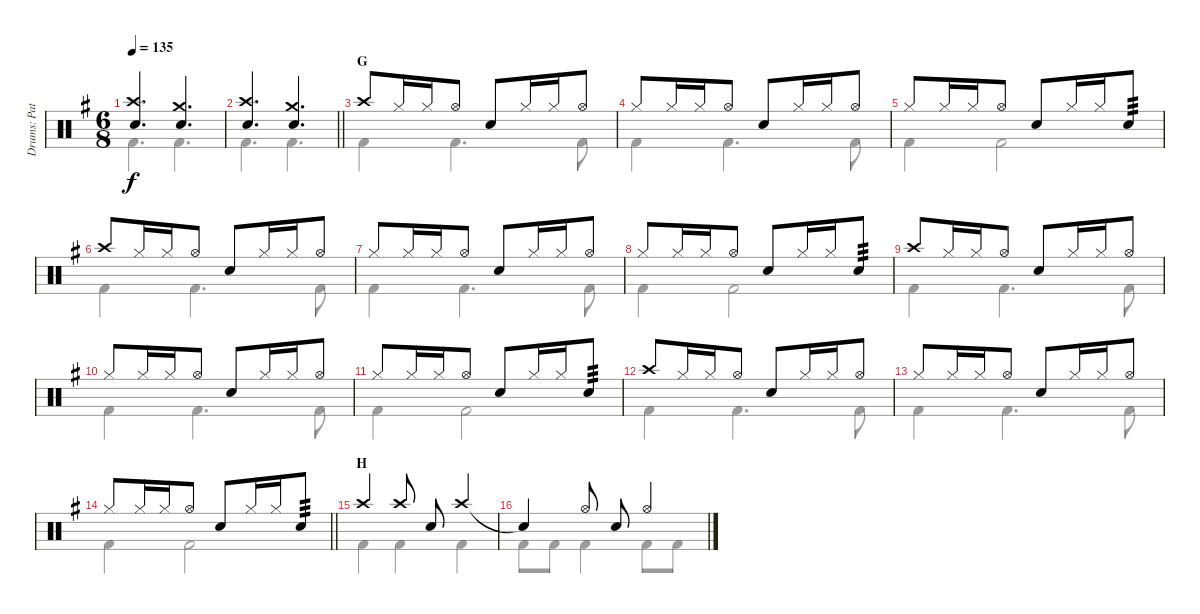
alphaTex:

\track ("Drums: Pat" "Drums: Pat") {instrument percussion}
\staff {score}
\articulation defaults
\voice
\ts (6 8)
\tempo 135
\clef neutral
\ks g
("Crash high (hit)"{acc b} "Snare (hit) 2").4{d dy f} ("Crash medium (hit)" "Snare (hit) 2").4{d} |
\barLineRight lightlight
("Crash high (hit)"{acc b} "Snare (hit) 2").4{d} ("Crash medium (hit)" "Snare (hit) 2").4{d} |
\section ("" "G")
"Crash high (hit)".8 "Hi-Hat (closed)".16 "Hi-Hat (closed)".16 "Hi-Hat (open)".8 "Snare (hit) 2".8 "Hi-Hat (closed)".16 "Hi-Hat (closed)".16 "Hi-Hat (open)".8 |
"Hi-Hat (closed)".8 "Hi-Hat (closed)".16 "Hi-Hat (closed)".16 "Hi-Hat (open)".8 "Snare (hit) 2".8 "Hi-Hat (closed)".16 "Hi-Hat (closed)".16 "Hi-Hat (open)".8 |
"Hi-Hat (closed)".8 "Hi-Hat (closed)".16 "Hi-Hat (closed)".16 "Hi-Hat (open)".8 "Snare (hit) 2".8 "Hi-Hat (closed)".16 "Hi-Hat (closed)".16 "Electric Snare (hit)".8{tp 3} |
"Crash high (hit)".8 "Hi-Hat (closed)".16 "Hi-Hat (closed)".16 "Hi-Hat (open)".8 "Snare (hit) 2".8 "Hi-Hat (closed)".16 "Hi-Hat (closed)".16 "Hi-Hat (open)".8 |
"Hi-Hat (closed)".8 "Hi-Hat (closed)".16 "Hi-Hat (closed)".16 "Hi-Hat (open)".8 "Snare (hit) 2".8 "Hi-Hat (closed)".16 "Hi-Hat (closed)".16 "Hi-Hat (open)".8 |
"Hi-Hat (closed)".8 "Hi-Hat (closed)".16 "Hi-Hat (closed)".16 "Hi-Hat (open)".8 "Snare (hit) 2".8 "Hi-Hat (closed)".16 "Hi-Hat (closed)".16 "Electric Snare (hit)".8{tp 3} |
"Crash high (hit)".8 "Hi-Hat (closed)".16 "Hi-Hat (closed)".16 "Hi-Hat (open)".8 "Snare (hit) 2".8 "Hi-Hat (closed)".16 "Hi-Hat (closed)".16 "Hi-Hat (open)".8 |
"Hi-Hat (closed)".8 "Hi-Hat (closed)".16 "Hi-Hat (closed)".16 "Hi-Hat (open)".8 "Snare (hit) 2".8 "Hi-Hat (closed)".16 "Hi-Hat (closed)".16 "Hi-Hat (open)".8 |
"Hi-Hat (closed)".8 "Hi-Hat (closed)".16 "Hi-Hat (closed)".16 "Hi-Hat (open)".8 "Snare (hit) 2".8 "Hi-Hat (closed)".16 "Hi-Hat (closed)".16 "Electric Snare (hit)".8{tp 3} |
"Crash high (hit)".8 "Hi-Hat (closed)".16 "Hi-Hat (closed)".16 "Hi-Hat (open)".8 "Snare (hit) 2".8 "Hi-Hat (closed)".16 "Hi-Hat (closed)".16 "Hi-Hat (open)".8 |
"Hi-Hat (closed)".8 "Hi-Hat (closed)".16 "Hi-Hat (closed)".16 "Hi-Hat (open)".8 "Snare (hit) 2".8 "Hi-Hat (closed)".16 "Hi-Hat (closed)".16 "Hi-Hat (open)".8 |
\barLineRight lightlight "Hi-Hat (closed)".8 "Hi-Hat (closed)".16 "Hi-Hat (closed)".16 "Hi-Hat (open)".8 "Snare (hit) 2".8 "Hi-Hat (closed)".16 "Hi-Hat (closed)".16 "Electric Snare (hit)".8{tp 3}
|
\section ("" "H")
"Crash high (hit)".4 "Crash high (hit)".8 "Electric Snare (hit)".8 "Crash high (hit)".4 |
"Snare (hit)"{t}.4 "Hi-Hat (open)".8 "Snare (hit) 2".8 "Hi-Hat (open)".4
\voice
\clef neutral
\ottava regular
\simile none
\ks g "Kick (hit) 2".4{d dy f} "Kick (hit) 2".4{d}
|
\barLineRight lightlight "Kick (hit) 2".4{d} "Kick (hit) 2".4{d}
|
"Kick (hit) 2".4 "Kick (hit) 2".4{d} "Kick (hit) 2".8 |
"Kick (hit) 2".4 "Kick (hit) 2".4{d} "Kick (hit) 2".8 |
"Kick (hit) 2".4 "Kick (hit) 2".2 |
"Kick (hit) 2".4 "Kick (hit) 2".4{d} "Kick (hit) 2".8 |
"Kick (hit) 2".4 "Kick (hit) 2".4{d} "Kick (hit) 2".8 |
"Kick (hit) 2".4 "Kick (hit) 2".2 |
"Kick (hit) 2".4 "Kick (hit) 2".4{d} "Kick (hit) 2".8 |
"Kick (hit) 2".4 "Kick (hit) 2".4{d} "Kick (hit) 2".8 |
"Kick (hit) 2".4 "Kick (hit) 2".2 |
"Kick (hit) 2".4 "Kick (hit) 2".4{d} "Kick (hit) 2".8 |
"Kick (hit) 2".4 "Kick (hit) 2".4{d} "Kick (hit) 2".8 |
\barLineRight lightlight "Kick (hit) 2".4 "Kick (hit) 2".2
|
"Kick (hit) 2".4 "Kick (hit) 2".4 "Kick (hit) 2".4 |
"Kick (hit) 2".8 "Kick (hit) 2".8 "Kick (hit) 2".4 "Kick (hit) 2".8 "Kick (hit) 2".8
